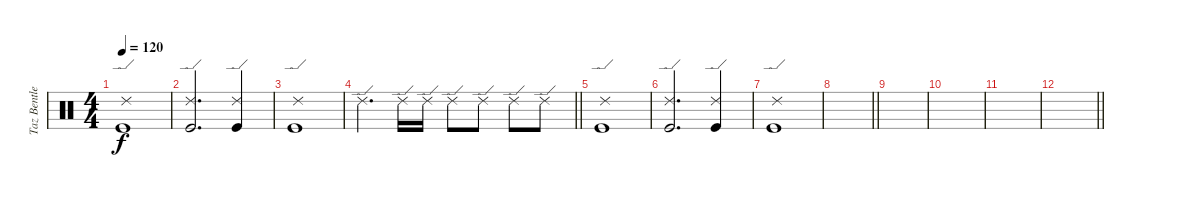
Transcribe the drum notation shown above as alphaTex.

\track ("Taz Bentley - drums" "Taz Bentle") {instrument percussion}
\staff
\articulation defaults
\ts (4 4)
\tempo 120
\clef neutral
\ks c
("Ride (edge) 2" "Kick (hit)").1{dy f} |
("Ride (edge) 2" "Kick (hit)").2{d} ("Ride (edge) 2" "Kick (hit)").4 |
("Ride (edge) 2" "Kick (hit)").1 |
\barLineRight lightlight "Ride (edge) 2".4{d} "Ride (edge) 2".16 "Ride (edge) 2".16 "Ride (edge) 2".8 "Ride (edge) 2".8 "Ride (edge) 2".8 "Ride (edge) 2".8
|
("Ride (edge) 2" "Kick (hit)").1 |
("Ride (edge) 2" "Kick (hit)").2{d} ("Ride (edge) 2" "Kick (hit)").4 |
("Ride (edge) 2" "Kick (hit)").1 |
\barLineRight lightlight
|
|
|
|
\barLineRight lightlight
